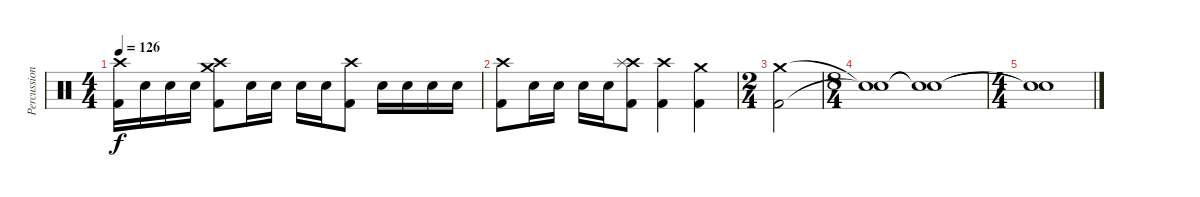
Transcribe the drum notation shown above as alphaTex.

\track ("Percussions" "Percussion") {instrument percussion}
\staff {score}
\articulation defaults
\ts (4 4)
\tempo 126
\clef neutral
\ks c
("Crash high (hit)" "Kick (hit) 2").16{dy f} "Electric Snare (hit)".16 "Electric Snare (hit)".16 "Electric Snare (hit)".16 ("Crash high (hit)" "Crash medium (hit)" "Kick (hit) 2").8 "Electric Snare (hit)".16 "Electric Snare (hit)".16 "Electric Snare (hit)".16 "Electric Snare (hit)".16 ("Crash high (hit)" "Kick (hit) 2").8 "Electric Snare (hit)".16 "Electric Snare (hit)".16 "Electric Snare (hit)".16 "Electric Snare (hit)".16 |
("Crash high (hit)" "Kick (hit) 2").8 "Electric Snare (hit)".16 "Electric Snare (hit)".16 "Electric Snare (hit)".16 "Electric Snare (hit)".16 ("Crash high (hit)" "Splash (hit)" "Kick (hit) 2").8 ("Crash high (hit)" "Kick (hit) 2").4 ("Crash medium (hit)" "Kick (hit) 2").4 |
\ts (2 4)
("Crash medium (hit)" "Kick (hit) 2").2 |
\ts (8 4)
("Snare (hit)"{t} "Snare (hit)"{t}).1 ("Snare (hit)"{t} "Snare (hit)"{t}).1 |
\ts (4 4)
("Snare (hit)"{t} "Snare (hit)"{t}).1
